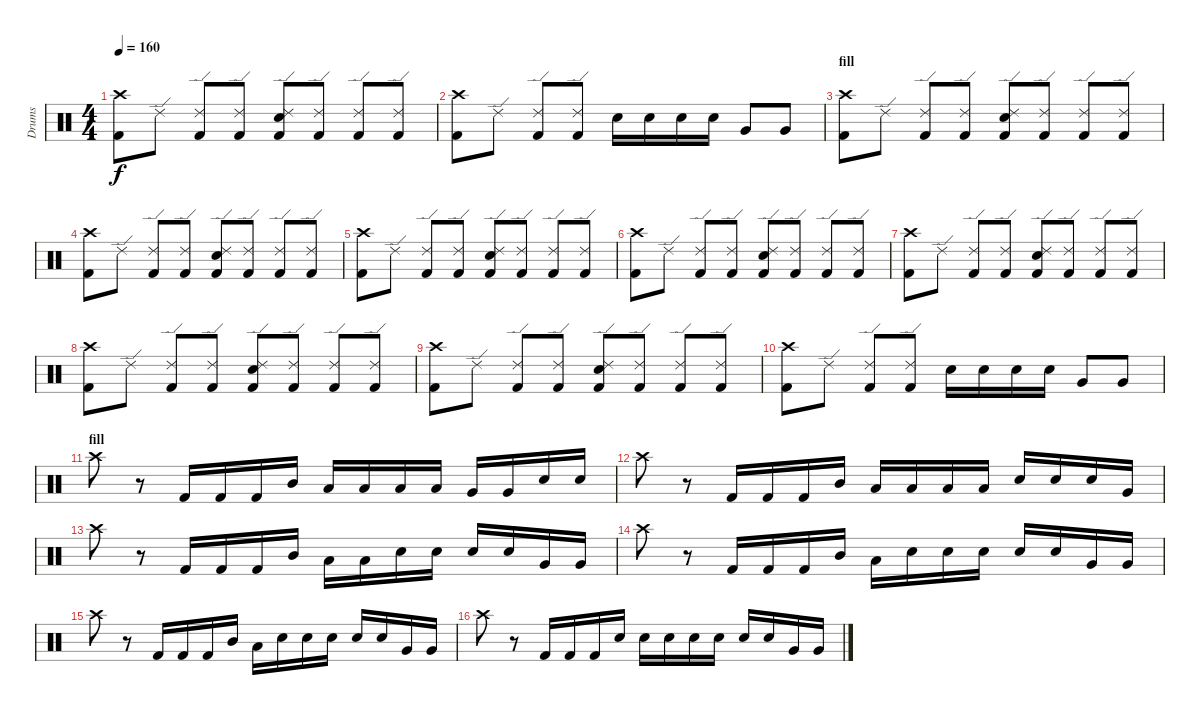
\track ("Drums" "Drums") {instrument percussion}
\staff {score}
\articulation defaults
\ts (4 4)
\tempo 160
\clef neutral
\ks c
("Crash high (hit)" "Kick (hit) 2").8{dy f} "Ride (edge) 2".8 ("Ride (edge) 2" "Kick (hit) 2").8 ("Ride (edge) 2" "Kick (hit) 2").8 ("Ride (edge) 2" "Snare (hit) 2" "Kick (hit) 2").8 ("Ride (edge) 2" "Kick (hit) 2").8 ("Ride (edge) 2" "Kick (hit) 2").8 ("Ride (edge) 2" "Kick (hit) 2").8 |
("Crash high (hit)" "Kick (hit) 2").8 "Ride (edge) 2".8 ("Ride (edge) 2" "Kick (hit) 2").8 ("Ride (edge) 2" "Kick (hit) 2").8 "Snare (hit) 2".16 "Snare (hit) 2".16 "Snare (hit) 2".16 "Snare (hit) 2".16 "Very Low Tom (hit)".8 "Very Low Tom (hit)".8 |
\section ("" "fill")
("Crash high (hit)" "Kick (hit) 2").8 "Ride (edge) 2".8 ("Ride (edge) 2" "Kick (hit) 2").8 ("Ride (edge) 2" "Kick (hit) 2").8 ("Ride (edge) 2" "Snare (hit) 2" "Kick (hit) 2").8 ("Ride (edge) 2" "Kick (hit) 2").8 ("Ride (edge) 2" "Kick (hit) 2").8 ("Ride (edge) 2" "Kick (hit) 2").8 |
("Crash high (hit)" "Kick (hit) 2").8 "Ride (edge) 2".8 ("Ride (edge) 2" "Kick (hit) 2").8 ("Ride (edge) 2" "Kick (hit) 2").8 ("Ride (edge) 2" "Snare (hit) 2" "Kick (hit) 2").8 ("Ride (edge) 2" "Kick (hit) 2").8 ("Ride (edge) 2" "Kick (hit) 2").8 ("Ride (edge) 2" "Kick (hit) 2").8 |
("Crash high (hit)" "Kick (hit) 2").8 "Ride (edge) 2".8 ("Ride (edge) 2" "Kick (hit) 2").8 ("Ride (edge) 2" "Kick (hit) 2").8 ("Ride (edge) 2" "Snare (hit) 2" "Kick (hit) 2").8 ("Ride (edge) 2" "Kick (hit) 2").8 ("Ride (edge) 2" "Kick (hit) 2").8 ("Ride (edge) 2" "Kick (hit) 2").8 |
("Crash high (hit)" "Kick (hit) 2").8 "Ride (edge) 2".8 ("Ride (edge) 2" "Kick (hit) 2").8 ("Ride (edge) 2" "Kick (hit) 2").8 ("Ride (edge) 2" "Snare (hit) 2" "Kick (hit) 2").8 ("Ride (edge) 2" "Kick (hit) 2").8 ("Ride (edge) 2" "Kick (hit) 2").8 ("Ride (edge) 2" "Kick (hit) 2").8 |
("Crash high (hit)" "Kick (hit) 2").8 "Ride (edge) 2".8 ("Ride (edge) 2" "Kick (hit) 2").8 ("Ride (edge) 2" "Kick (hit) 2").8 ("Ride (edge) 2" "Snare (hit) 2" "Kick (hit) 2").8 ("Ride (edge) 2" "Kick (hit) 2").8 ("Ride (edge) 2" "Kick (hit) 2").8 ("Ride (edge) 2" "Kick (hit) 2").8 |
("Crash high (hit)" "Kick (hit) 2").8 "Ride (edge) 2".8 ("Ride (edge) 2" "Kick (hit) 2").8 ("Ride (edge) 2" "Kick (hit) 2").8 ("Ride (edge) 2" "Snare (hit) 2" "Kick (hit) 2").8 ("Ride (edge) 2" "Kick (hit) 2").8 ("Ride (edge) 2" "Kick (hit) 2").8 ("Ride (edge) 2" "Kick (hit) 2").8 |
("Crash high (hit)" "Kick (hit) 2").8 "Ride (edge) 2".8 ("Ride (edge) 2" "Kick (hit) 2").8 ("Ride (edge) 2" "Kick (hit) 2").8 ("Ride (edge) 2" "Snare (hit) 2" "Kick (hit) 2").8 ("Ride (edge) 2" "Kick (hit) 2").8 ("Ride (edge) 2" "Kick (hit) 2").8 ("Ride (edge) 2" "Kick (hit) 2").8 |
("Crash high (hit)" "Kick (hit) 2").8 "Ride (edge) 2".8 ("Ride (edge) 2" "Kick (hit) 2").8 ("Ride (edge) 2" "Kick (hit) 2").8 "Snare (hit) 2".16 "Snare (hit) 2".16 "Snare (hit) 2".16 "Snare (hit) 2".16 "Very Low Tom (hit)".8 "Very Low Tom (hit)".8 |
\section ("" "fill")
"Crash high (hit)".8 r.8 "Kick (hit) 2".16 "Kick (hit) 2".16 "Kick (hit) 2".16 "Mid Tom (hit)".16 "Low Tom (hit)".16 "Low Tom (hit)".16 "Low Tom (hit)".16 "Low Tom (hit)".16 "Very Low Tom (hit)".16 "Very Low Tom (hit)".16 "Snare (hit) 2".16 "Snare (hit) 2".16 |
"Crash high (hit)".8 r.8 "Kick (hit) 2".16 "Kick (hit) 2".16 "Kick (hit) 2".16 "Mid Tom (hit)".16 "Low Tom (hit)".16 "Low Tom (hit)".16 "Low Tom (hit)".16 "Low Tom (hit)".16 "Snare (hit) 2".16 "Snare (hit) 2".16 "Snare (hit) 2".16 "Very Low Tom (hit)".16 |
"Crash high (hit)".8 r.8 "Kick (hit) 2".16 "Kick (hit) 2".16 "Kick (hit) 2".16 "Mid Tom (hit)".16 "Low Tom (hit)".16 "Low Tom (hit)".16 "Snare (hit) 2".16 "Snare (hit) 2".16 "Snare (hit) 2".16 "Snare (hit) 2".16 "Very Low Tom (hit)".16 "Very Low Tom (hit)".16 |
"Crash high (hit)".8 r.8 "Kick (hit) 2".16 "Kick (hit) 2".16 "Kick (hit) 2".16 "Mid Tom (hit)".16 "Low Tom (hit)".16 "Snare (hit) 2".16 "Snare (hit) 2".16 "Snare (hit) 2".16 "Snare (hit) 2".16 "Snare (hit) 2".16 "Very Low Tom (hit)".16 "Very Low Tom (hit)".16 |
"Crash high (hit)".8 r.8 "Kick (hit) 2".16 "Kick (hit) 2".16 "Kick (hit) 2".16 "Mid Tom (hit)".16 "Low Tom (hit)".16 "Snare (hit) 2".16 "Snare (hit) 2".16 "Snare (hit) 2".16 "Snare (hit) 2".16 "Snare (hit) 2".16 "Very Low Tom (hit)".16 "Very Low Tom (hit)".16 |
"Crash high (hit)".8 r.8 "Kick (hit) 2".16 "Kick (hit) 2".16 "Kick (hit) 2".16 "Snare (hit) 2".16 "Snare (hit) 2".16 "Snare (hit) 2".16 "Snare (hit) 2".16 "Snare (hit) 2".16 "Snare (hit) 2".16 "Snare (hit) 2".16 "Very Low Tom (hit)".16 "Very Low Tom (hit)".16
